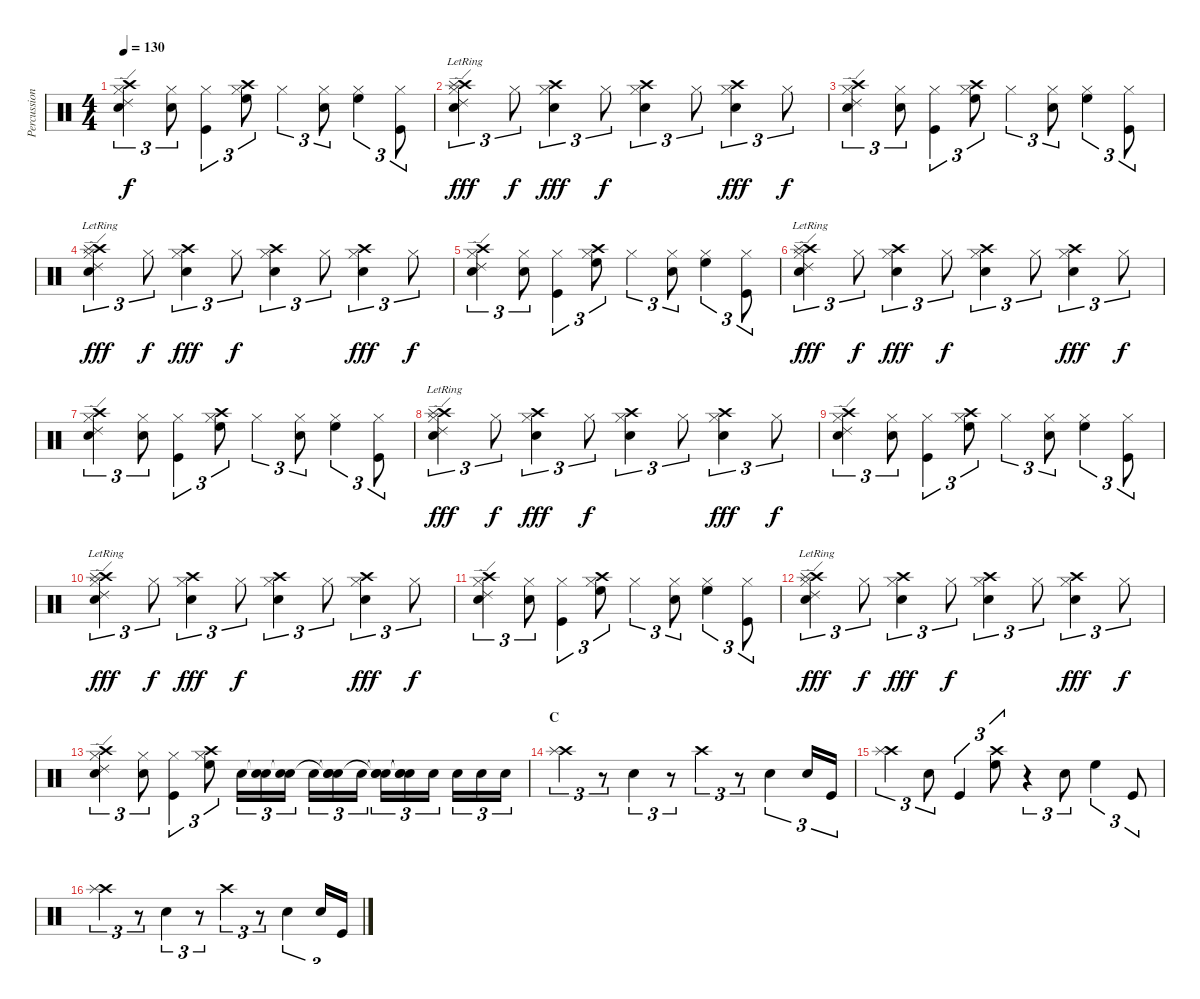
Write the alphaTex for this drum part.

\track ("Percussion" "Percussion") {instrument percussion}
\staff {score}
\articulation defaults
\ts (4 4)
\tempo 130
\clef neutral
\ks c
("Crash high (hit)" "Ride (edge) 2" "Hi-Hat (closed)" "Snare (hit) 2").4{tu (3 2) dy f} ("Snare (hit) 2" "Hi-Hat (closed)").8{tu (3 2)} ("Kick (hit)" "Hi-Hat (closed)").4{tu (3 2)} ("Crash high (hit)" "High Floor Tom (hit)" "Hi-Hat (closed)").8{tu (3 2)} "Hi-Hat (closed)".4{tu (3 2)} ("Snare (hit) 2" "Hi-Hat (closed)").8{tu (3 2)} ("High Floor Tom (hit)" "Hi-Hat (closed)").4{tu (3 2)} ("Kick (hit)" "Hi-Hat (closed)").8{tu (3 2)} |
("Crash high (hit)"{lr} "Ride (edge) 2" "Splash (hit)"{lr} "Hi-Hat (closed)"{lr} "Snare (hit) 2").4{tu (3 2) dy fff} "Hi-Hat (closed)".8{tu (3 2) dy f} ("Crash high (hit)" "Electric Snare (hit)" "Hi-Hat (closed)").4{tu (3 2) dy fff} "Hi-Hat (closed)".8{tu (3 2) dy f} ("Crash high (hit)" "Hi-Hat (closed)" "Snare (hit) 2").4{tu (3 2)} "Hi-Hat (closed)".8{tu (3 2)} ("Crash high (hit)" "Electric Snare (hit)" "Hi-Hat (closed)").4{tu (3 2) dy fff} "Hi-Hat (closed)".8{tu (3 2) dy f} |
("Crash high (hit)" "Ride (edge) 2" "Hi-Hat (closed)" "Snare (hit) 2").4{tu (3 2)} ("Snare (hit) 2" "Hi-Hat (closed)").8{tu (3 2)} ("Kick (hit)" "Hi-Hat (closed)").4{tu (3 2)} ("Crash high (hit)" "High Floor Tom (hit)" "Hi-Hat (closed)").8{tu (3 2)} "Hi-Hat (closed)".4{tu (3 2)} ("Snare (hit) 2" "Hi-Hat (closed)").8{tu (3 2)} ("High Floor Tom (hit)" "Hi-Hat (closed)").4{tu (3 2)} ("Kick (hit)" "Hi-Hat (closed)").8{tu (3 2)} |
("Crash high (hit)"{lr} "Ride (edge) 2" "Splash (hit)"{lr} "Hi-Hat (closed)"{lr} "Snare (hit) 2").4{tu (3 2) dy fff} "Hi-Hat (closed)".8{tu (3 2) dy f} ("Crash high (hit)" "Electric Snare (hit)" "Hi-Hat (closed)").4{tu (3 2) dy fff} "Hi-Hat (closed)".8{tu (3 2) dy f} ("Crash high (hit)" "Hi-Hat (closed)" "Snare (hit) 2").4{tu (3 2)} "Hi-Hat (closed)".8{tu (3 2)} ("Crash high (hit)" "Electric Snare (hit)" "Hi-Hat (closed)").4{tu (3 2) dy fff} "Hi-Hat (closed)".8{tu (3 2) dy f} |
("Crash high (hit)" "Ride (edge) 2" "Hi-Hat (closed)" "Snare (hit) 2").4{tu (3 2)} ("Snare (hit) 2" "Hi-Hat (closed)").8{tu (3 2)} ("Kick (hit)" "Hi-Hat (closed)").4{tu (3 2)} ("Crash high (hit)" "High Floor Tom (hit)" "Hi-Hat (closed)").8{tu (3 2)} "Hi-Hat (closed)".4{tu (3 2)} ("Snare (hit) 2" "Hi-Hat (closed)").8{tu (3 2)} ("High Floor Tom (hit)" "Hi-Hat (closed)").4{tu (3 2)} ("Kick (hit)" "Hi-Hat (closed)").8{tu (3 2)} |
("Crash high (hit)"{lr} "Ride (edge) 2" "Splash (hit)"{lr} "Hi-Hat (closed)"{lr} "Snare (hit) 2").4{tu (3 2) dy fff} "Hi-Hat (closed)".8{tu (3 2) dy f} ("Crash high (hit)" "Electric Snare (hit)" "Hi-Hat (closed)").4{tu (3 2) dy fff} "Hi-Hat (closed)".8{tu (3 2) dy f} ("Crash high (hit)" "Hi-Hat (closed)" "Snare (hit) 2").4{tu (3 2)} "Hi-Hat (closed)".8{tu (3 2)} ("Crash high (hit)" "Electric Snare (hit)" "Hi-Hat (closed)").4{tu (3 2) dy fff} "Hi-Hat (closed)".8{tu (3 2) dy f} |
("Crash high (hit)" "Ride (edge) 2" "Hi-Hat (closed)" "Snare (hit) 2").4{tu (3 2)} ("Snare (hit) 2" "Hi-Hat (closed)").8{tu (3 2)} ("Kick (hit)" "Hi-Hat (closed)").4{tu (3 2)} ("Crash high (hit)" "High Floor Tom (hit)" "Hi-Hat (closed)").8{tu (3 2)} "Hi-Hat (closed)".4{tu (3 2)} ("Snare (hit) 2" "Hi-Hat (closed)").8{tu (3 2)} ("High Floor Tom (hit)" "Hi-Hat (closed)").4{tu (3 2)} ("Kick (hit)" "Hi-Hat (closed)").8{tu (3 2)} |
("Crash high (hit)"{lr} "Ride (edge) 2" "Splash (hit)"{lr} "Hi-Hat (closed)"{lr} "Snare (hit) 2").4{tu (3 2) dy fff} "Hi-Hat (closed)".8{tu (3 2) dy f} ("Crash high (hit)" "Electric Snare (hit)" "Hi-Hat (closed)").4{tu (3 2) dy fff} "Hi-Hat (closed)".8{tu (3 2) dy f} ("Crash high (hit)" "Hi-Hat (closed)" "Snare (hit) 2").4{tu (3 2)} "Hi-Hat (closed)".8{tu (3 2)} ("Crash high (hit)" "Electric Snare (hit)" "Hi-Hat (closed)").4{tu (3 2) dy fff} "Hi-Hat (closed)".8{tu (3 2) dy f} |
("Crash high (hit)" "Ride (edge) 2" "Hi-Hat (closed)" "Snare (hit) 2").4{tu (3 2)} ("Snare (hit) 2" "Hi-Hat (closed)").8{tu (3 2)} ("Kick (hit)" "Hi-Hat (closed)").4{tu (3 2)} ("Crash high (hit)" "High Floor Tom (hit)" "Hi-Hat (closed)").8{tu (3 2)} "Hi-Hat (closed)".4{tu (3 2)} ("Snare (hit) 2" "Hi-Hat (closed)").8{tu (3 2)} ("High Floor Tom (hit)" "Hi-Hat (closed)").4{tu (3 2)} ("Kick (hit)" "Hi-Hat (closed)").8{tu (3 2)} |
("Crash high (hit)"{lr} "Ride (edge) 2" "Splash (hit)"{lr} "Hi-Hat (closed)"{lr} "Snare (hit) 2").4{tu (3 2) dy fff} "Hi-Hat (closed)".8{tu (3 2) dy f} ("Crash high (hit)" "Electric Snare (hit)" "Hi-Hat (closed)").4{tu (3 2) dy fff} "Hi-Hat (closed)".8{tu (3 2) dy f} ("Crash high (hit)" "Hi-Hat (closed)" "Snare (hit) 2").4{tu (3 2)} "Hi-Hat (closed)".8{tu (3 2)} ("Crash high (hit)" "Electric Snare (hit)" "Hi-Hat (closed)").4{tu (3 2) dy fff} "Hi-Hat (closed)".8{tu (3 2) dy f} |
("Crash high (hit)" "Ride (edge) 2" "Hi-Hat (closed)" "Snare (hit) 2").4{tu (3 2)} ("Snare (hit) 2" "Hi-Hat (closed)").8{tu (3 2)} ("Kick (hit)" "Hi-Hat (closed)").4{tu (3 2)} ("Crash high (hit)" "High Floor Tom (hit)" "Hi-Hat (closed)").8{tu (3 2)} "Hi-Hat (closed)".4{tu (3 2)} ("Snare (hit) 2" "Hi-Hat (closed)").8{tu (3 2)} ("High Floor Tom (hit)" "Hi-Hat (closed)").4{tu (3 2)} ("Kick (hit)" "Hi-Hat (closed)").8{tu (3 2)} |
("Crash high (hit)"{lr} "Ride (edge) 2" "Splash (hit)"{lr} "Hi-Hat (closed)"{lr} "Snare (hit) 2").4{tu (3 2) dy fff} "Hi-Hat (closed)".8{tu (3 2) dy f} ("Crash high (hit)" "Electric Snare (hit)" "Hi-Hat (closed)").4{tu (3 2) dy fff} "Hi-Hat (closed)".8{tu (3 2) dy f} ("Crash high (hit)" "Hi-Hat (closed)" "Snare (hit) 2").4{tu (3 2)} "Hi-Hat (closed)".8{tu (3 2)} ("Crash high (hit)" "Electric Snare (hit)" "Hi-Hat (closed)").4{tu (3 2) dy fff} "Hi-Hat (closed)".8{tu (3 2) dy f} |
("Crash high (hit)" "Ride (edge) 2" "Hi-Hat (closed)" "Snare (hit) 2").4{tu (3 2)} ("Snare (hit) 2" "Hi-Hat (closed)").8{tu (3 2)} ("Kick (hit)" "Hi-Hat (closed)").4{tu (3 2)} ("Crash high (hit)" "High Floor Tom (hit)" "Hi-Hat (closed)").8{tu (3 2)} "Snare (hit) 2".16{tu (3 2)} ("Snare (hit)"{t} "Snare (hit) 2").16{tu (3 2)} ("Snare (hit)"{t} "Snare (hit) 2").16{tu (3 2)} "Snare (hit) 2".16{tu (3 2)} ("Snare (hit)"{t} "Snare (hit)"{t} "Snare (hit) 2").16{tu (3 2)} "Snare (hit) 2".16{tu (3 2)} ("Snare (hit)"{t} "Snare (hit)"{t} "Snare (hit) 2").16{tu (3 2)} ("Snare (hit)"{t} "Snare (hit)"{t} "Snare (hit) 2").16{tu (3 2)} "Snare (hit) 2".16{tu (3 2)} "Snare (hit) 2".16{tu (3 2)} "Snare (hit) 2".16{tu (3 2)} "Snare (hit) 2".16{tu (3 2)} |
\section ("" "C")
("Crash high (hit)" "Splash (hit)").4{tu (3 2)} r.8{tu (3 2)} "Electric Snare (hit)".4{tu (3 2)} r.8{tu (3 2)} "Crash high (hit)".4{tu (3 2)} r.8{tu (3 2)} "Electric Snare (hit)".4{tu (3 2)} "Snare (hit) 2".16{tu (3 2)} "Kick (hit)".16{tu (3 2)} |
("Crash high (hit)" "Splash (hit)").4{tu (3 2)} "Snare (hit) 2".8{tu (3 2)} "Kick (hit)".4{tu (3 2)} ("Crash high (hit)" "High Floor Tom (hit)").8{tu (3 2)} r.4{tu (3 2)} "Snare (hit) 2".8{tu (3 2)} "High Floor Tom (hit)".4{tu (3 2)} "Kick (hit)".8{tu (3 2)} |
("Crash high (hit)" "Splash (hit)").4{tu (3 2)} r.8{tu (3 2)} "Electric Snare (hit)".4{tu (3 2)} r.8{tu (3 2)} "Crash high (hit)".4{tu (3 2)} r.8{tu (3 2)} "Electric Snare (hit)".4{tu (3 2)} "Snare (hit) 2".16{tu (3 2)} "Kick (hit)".16{tu (3 2)}
